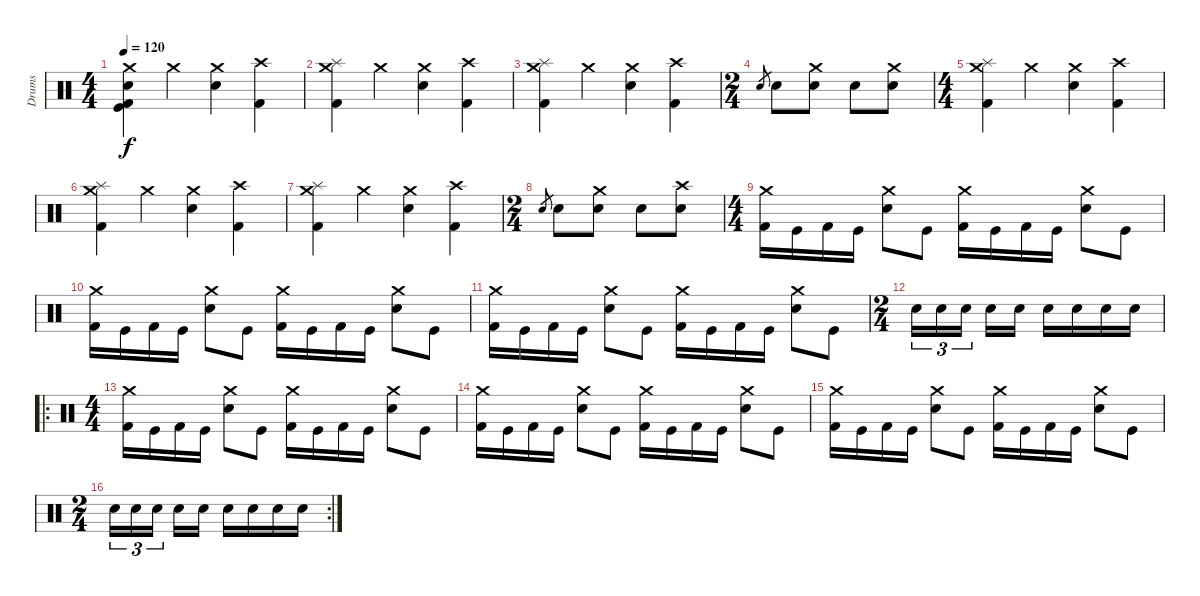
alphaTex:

\track ("Drums" "Drums") {instrument percussion}
\staff {score}
\articulation defaults
\ts (4 4)
\tempo 120
\clef neutral
\ks c
("Crash medium (hit)" "Snare (hit) 2" "Kick (hit)" "Kick (hit) 2").4{dy f} "Crash medium (hit)".4 ("Crash medium (hit)" "Snare (hit) 2").4 ("Crash high (hit)" "Kick (hit) 2").4 |
("Splash (hit)" "Crash medium (hit)" "Kick (hit) 2").4 "Crash medium (hit)".4 ("Crash medium (hit)" "Snare (hit) 2").4 ("Crash high (hit)" "Kick (hit) 2").4 |
("Splash (hit)" "Crash medium (hit)" "Kick (hit) 2").4 "Crash medium (hit)".4 ("Crash medium (hit)" "Snare (hit) 2").4 ("Crash high (hit)" "Kick (hit) 2").4 |
\ts (2 4)
"Snare (hit) 2".8{gr} "Snare (hit) 2".8 ("Crash medium (hit)" "Snare (hit) 2").8 "Snare (hit) 2".8 ("Crash medium (hit)" "Snare (hit) 2").8 |
\ts (4 4)
("Splash (hit)" "Crash medium (hit)" "Kick (hit) 2").4 "Crash medium (hit)".4 ("Crash medium (hit)" "Snare (hit) 2").4 ("Crash high (hit)" "Kick (hit) 2").4 |
("Splash (hit)" "Crash medium (hit)" "Kick (hit) 2").4 "Crash medium (hit)".4 ("Crash medium (hit)" "Snare (hit) 2").4 ("Crash high (hit)" "Kick (hit) 2").4 |
("Splash (hit)" "Crash medium (hit)" "Kick (hit) 2").4 "Crash medium (hit)".4 ("Crash medium (hit)" "Snare (hit) 2").4 ("Crash high (hit)" "Kick (hit) 2").4 |
\ts (2 4)
"Snare (hit) 2".8{gr} "Snare (hit) 2".8 ("Crash medium (hit)" "Snare (hit) 2").8 "Snare (hit) 2".8 ("Crash high (hit)" "Snare (hit) 2").8 |
\ts (4 4)
("Crash medium (hit)" "Kick (hit) 2").16 "Kick (hit)".16 "Kick (hit) 2".16 "Kick (hit)".16 ("Crash medium (hit)" "Snare (hit) 2").8 "Kick (hit)".8 ("Crash medium (hit)" "Kick (hit) 2").16 "Kick (hit)".16 "Kick (hit) 2".16 "Kick (hit)".16 ("Crash medium (hit)" "Snare (hit) 2").8 "Kick (hit)".8 |
("Crash medium (hit)" "Kick (hit) 2").16 "Kick (hit)".16 "Kick (hit) 2".16 "Kick (hit)".16 ("Crash medium (hit)" "Snare (hit) 2").8 "Kick (hit)".8 ("Crash medium (hit)" "Kick (hit) 2").16 "Kick (hit)".16 "Kick (hit) 2".16 "Kick (hit)".16 ("Crash medium (hit)" "Snare (hit) 2").8 "Kick (hit)".8 |
("Crash medium (hit)" "Kick (hit) 2").16 "Kick (hit)".16 "Kick (hit) 2".16 "Kick (hit)".16 ("Crash medium (hit)" "Snare (hit) 2").8 "Kick (hit)".8 ("Crash medium (hit)" "Kick (hit) 2").16 "Kick (hit)".16 "Kick (hit) 2".16 "Kick (hit)".16 ("Crash medium (hit)" "Snare (hit) 2").8 "Kick (hit)".8 |
\ts (2 4)
"Snare (hit) 2".16{tu (3 2)} "Snare (hit) 2".16{tu (3 2)} "Snare (hit) 2".16{tu (3 2)} "Snare (hit) 2".16 "Snare (hit) 2".16 "Snare (hit) 2".16 "Snare (hit) 2".16 "Snare (hit) 2".16 "Snare (hit) 2".16 |
\ro
\ts (4 4)
("Crash medium (hit)" "Kick (hit) 2").16 "Kick (hit)".16 "Kick (hit) 2".16 "Kick (hit)".16 ("Crash medium (hit)" "Snare (hit) 2").8 "Kick (hit)".8 ("Crash medium (hit)" "Kick (hit) 2").16 "Kick (hit)".16 "Kick (hit) 2".16 "Kick (hit)".16 ("Crash medium (hit)" "Snare (hit) 2").8 "Kick (hit)".8 |
("Crash medium (hit)" "Kick (hit) 2").16 "Kick (hit)".16 "Kick (hit) 2".16 "Kick (hit)".16 ("Crash medium (hit)" "Snare (hit) 2").8 "Kick (hit)".8 ("Crash medium (hit)" "Kick (hit) 2").16 "Kick (hit)".16 "Kick (hit) 2".16 "Kick (hit)".16 ("Crash medium (hit)" "Snare (hit) 2").8 "Kick (hit)".8 |
("Crash medium (hit)" "Kick (hit) 2").16 "Kick (hit)".16 "Kick (hit) 2".16 "Kick (hit)".16 ("Crash medium (hit)" "Snare (hit) 2").8 "Kick (hit)".8 ("Crash medium (hit)" "Kick (hit) 2").16 "Kick (hit)".16 "Kick (hit) 2".16 "Kick (hit)".16 ("Crash medium (hit)" "Snare (hit) 2").8 "Kick (hit)".8 |
\rc 2
\ts (2 4)
"Snare (hit) 2".16{tu (3 2)} "Snare (hit) 2".16{tu (3 2)} "Snare (hit) 2".16{tu (3 2)} "Snare (hit) 2".16 "Snare (hit) 2".16 "Snare (hit) 2".16 "Snare (hit) 2".16 "Snare (hit) 2".16 "Snare (hit) 2".16
